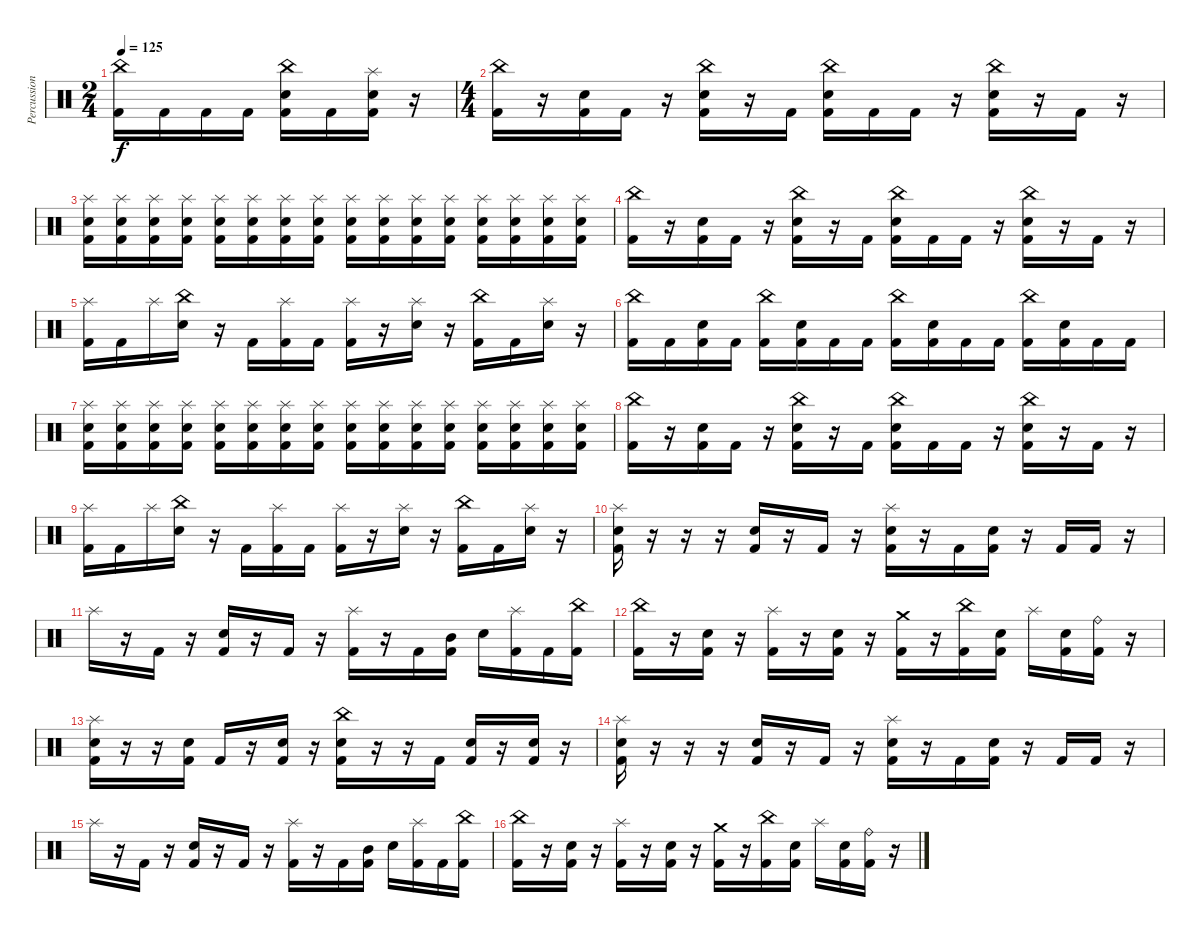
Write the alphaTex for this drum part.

\track ("Percussion" "Percussion") {instrument percussion}
\staff {score}
\articulation defaults
\ts (2 4)
\tempo 125
\clef neutral
\ks c
("China (hit)" "Kick (hit) 2").16{dy f} "Kick (hit) 2".16 "Kick (hit) 2".16 "Kick (hit) 2".16 ("China (hit)" "Electric Snare (hit)" "Kick (hit) 2").16 "Kick (hit) 2".16 ("Splash (hit)" "Electric Snare (hit)" "Kick (hit) 2").16 r.16 |
\ts (4 4)
("China (hit)" "Kick (hit) 2").16 r.16 ("Electric Snare (hit)" "Kick (hit) 2").16 "Kick (hit) 2".16 r.16 ("China (hit)" "Electric Snare (hit)" "Kick (hit) 2").16 r.16 "Kick (hit) 2".16 ("China (hit)" "Electric Snare (hit)" "Kick (hit) 2").16 "Kick (hit) 2".16 "Kick (hit) 2".16 r.16 ("China (hit)" "Electric Snare (hit)" "Kick (hit) 2").16 r.16 "Kick (hit) 2".16 r.16 |
("Splash (hit)" "Electric Snare (hit)" "Kick (hit) 2").16 ("Splash (hit)" "Electric Snare (hit)" "Kick (hit) 2").16 ("Splash (hit)" "Electric Snare (hit)" "Kick (hit) 2").16 ("Splash (hit)" "Electric Snare (hit)" "Kick (hit) 2").16 ("Splash (hit)" "Electric Snare (hit)" "Kick (hit) 2").16 ("Splash (hit)" "Electric Snare (hit)" "Kick (hit) 2").16 ("Splash (hit)" "Electric Snare (hit)" "Kick (hit) 2").16 ("Splash (hit)" "Electric Snare (hit)" "Kick (hit) 2").16 ("Splash (hit)" "Electric Snare (hit)" "Kick (hit) 2").16 ("Splash (hit)" "Electric Snare (hit)" "Kick (hit) 2").16 ("Splash (hit)" "Electric Snare (hit)" "Kick (hit) 2").16 ("Splash (hit)" "Electric Snare (hit)" "Kick (hit) 2").16 ("Splash (hit)" "Electric Snare (hit)" "Kick (hit) 2").16 ("Splash (hit)" "Electric Snare (hit)" "Kick (hit) 2").16 ("Splash (hit)" "Electric Snare (hit)" "Kick (hit) 2").16 ("Splash (hit)" "Electric Snare (hit)" "Kick (hit) 2").16 |
("China (hit)" "Kick (hit) 2").16 r.16 ("Electric Snare (hit)" "Kick (hit) 2").16 "Kick (hit) 2".16 r.16 ("China (hit)" "Electric Snare (hit)" "Kick (hit) 2").16 r.16 "Kick (hit) 2".16 ("China (hit)" "Electric Snare (hit)" "Kick (hit) 2").16 "Kick (hit) 2".16 "Kick (hit) 2".16 r.16 ("China (hit)" "Electric Snare (hit)" "Kick (hit) 2").16 r.16 "Kick (hit) 2".16 r.16 |
("Splash (hit)" "Kick (hit) 2").16 "Kick (hit) 2".16 "Splash (hit)".16 ("China (hit)" "Electric Snare (hit)").16 r.16 "Kick (hit) 2".16 ("Splash (hit)" "Kick (hit) 2").16 "Kick (hit) 2".16 ("Splash (hit)" "Kick (hit) 2").16 r.16 ("Splash (hit)" "Electric Snare (hit)").16 r.16 ("China (hit)" "Kick (hit) 2").16 "Kick (hit) 2".16 ("Splash (hit)" "Electric Snare (hit)").16 r.16 |
("China (hit)" "Kick (hit) 2").16 "Kick (hit) 2".16 ("Electric Snare (hit)" "Kick (hit) 2").16 "Kick (hit) 2".16 ("China (hit)" "Kick (hit) 2").16 ("Electric Snare (hit)" "Kick (hit) 2").16 "Kick (hit) 2".16 "Kick (hit) 2".16 ("China (hit)" "Kick (hit) 2").16 ("Electric Snare (hit)" "Kick (hit) 2").16 "Kick (hit) 2".16 "Kick (hit) 2".16 ("China (hit)" "Kick (hit) 2").16 ("Electric Snare (hit)" "Kick (hit) 2").16 "Kick (hit) 2".16 "Kick (hit) 2".16 |
("Splash (hit)" "Electric Snare (hit)" "Kick (hit) 2").16 ("Splash (hit)" "Electric Snare (hit)" "Kick (hit) 2").16 ("Splash (hit)" "Electric Snare (hit)" "Kick (hit) 2").16 ("Splash (hit)" "Electric Snare (hit)" "Kick (hit) 2").16 ("Splash (hit)" "Electric Snare (hit)" "Kick (hit) 2").16 ("Splash (hit)" "Electric Snare (hit)" "Kick (hit) 2").16 ("Splash (hit)" "Electric Snare (hit)" "Kick (hit) 2").16 ("Splash (hit)" "Electric Snare (hit)" "Kick (hit) 2").16 ("Splash (hit)" "Electric Snare (hit)" "Kick (hit) 2").16 ("Splash (hit)" "Electric Snare (hit)" "Kick (hit) 2").16 ("Splash (hit)" "Electric Snare (hit)" "Kick (hit) 2").16 ("Splash (hit)" "Electric Snare (hit)" "Kick (hit) 2").16 ("Splash (hit)" "Electric Snare (hit)" "Kick (hit) 2").16 ("Splash (hit)" "Electric Snare (hit)" "Kick (hit) 2").16 ("Splash (hit)" "Electric Snare (hit)" "Kick (hit) 2").16 ("Splash (hit)" "Electric Snare (hit)" "Kick (hit) 2").16 |
("China (hit)" "Kick (hit) 2").16 r.16 ("Electric Snare (hit)" "Kick (hit) 2").16 "Kick (hit) 2".16 r.16 ("China (hit)" "Electric Snare (hit)" "Kick (hit) 2").16 r.16 "Kick (hit) 2".16 ("China (hit)" "Electric Snare (hit)" "Kick (hit) 2").16 "Kick (hit) 2".16 "Kick (hit) 2".16 r.16 ("China (hit)" "Electric Snare (hit)" "Kick (hit) 2").16 r.16 "Kick (hit) 2".16 r.16 |
("Splash (hit)" "Kick (hit) 2").16 "Kick (hit) 2".16 "Splash (hit)".16 ("China (hit)" "Electric Snare (hit)").16 r.16 "Kick (hit) 2".16 ("Splash (hit)" "Kick (hit) 2").16 "Kick (hit) 2".16 ("Splash (hit)" "Kick (hit) 2").16 r.16 ("Splash (hit)" "Electric Snare (hit)").16 r.16 ("China (hit)" "Kick (hit) 2").16 "Kick (hit) 2".16 ("Splash (hit)" "Electric Snare (hit)").16 r.16 |
("Splash (hit)" "Electric Snare (hit)" "Kick (hit) 2").16 r.16 r.16 r.16 ("Electric Snare (hit)" "Kick (hit) 2").16 r.16 "Kick (hit) 2".16 r.16 ("Splash (hit)" "Electric Snare (hit)" "Kick (hit) 2").16 r.16 "Kick (hit) 2".16 ("Electric Snare (hit)" "Kick (hit) 2").16 r.16 "Kick (hit) 2".16 "Kick (hit) 2".16 r.16 |
"Splash (hit)".16 r.16 "Kick (hit) 2".16 r.16 ("Electric Snare (hit)" "Kick (hit) 2").16 r.16 "Kick (hit) 2".16 r.16 ("Splash (hit)" "Kick (hit) 2").16 r.16 "Kick (hit) 2".16 ("Mid Tom (hit)" "Kick (hit) 2").16 "Electric Snare (hit)".16 ("Splash (hit)" "Kick (hit) 2").16 "Kick (hit) 2".16 ("China (hit)" "Kick (hit) 2").16 |
("China (hit)" "Kick (hit) 2").16 r.16 ("Electric Snare (hit)" "Kick (hit) 2").16 r.16 ("Splash (hit)" "Kick (hit) 2").16 r.16 ("Electric Snare (hit)" "Kick (hit) 2").16 r.16 ("Crash medium (hit)" "Kick (hit) 2").16 r.16 ("China (hit)" "Kick (hit) 2").16 ("Electric Snare (hit)" "Kick (hit) 2").16 "Splash (hit)".16 ("Electric Snare (hit)" "Kick (hit) 2").16 ("Ride (bell)" "Kick (hit) 2").16 r.16 |
("Splash (hit)" "Electric Snare (hit)" "Kick (hit) 2").16 r.16 r.16 ("Electric Snare (hit)" "Kick (hit) 2").16 "Kick (hit) 2".16 r.16 ("Electric Snare (hit)" "Kick (hit) 2").16 r.16 ("China (hit)" "Electric Snare (hit)" "Kick (hit) 2").16 r.16 r.16 "Kick (hit) 2".16 ("Electric Snare (hit)" "Kick (hit) 2").16 r.16 ("Electric Snare (hit)" "Kick (hit) 2").16 r.16 |
("Splash (hit)" "Electric Snare (hit)" "Kick (hit) 2").16 r.16 r.16 r.16 ("Electric Snare (hit)" "Kick (hit) 2").16 r.16 "Kick (hit) 2".16 r.16 ("Splash (hit)" "Electric Snare (hit)" "Kick (hit) 2").16 r.16 "Kick (hit) 2".16 ("Electric Snare (hit)" "Kick (hit) 2").16 r.16 "Kick (hit) 2".16 "Kick (hit) 2".16 r.16 |
"Splash (hit)".16 r.16 "Kick (hit) 2".16 r.16 ("Electric Snare (hit)" "Kick (hit) 2").16 r.16 "Kick (hit) 2".16 r.16 ("Splash (hit)" "Kick (hit) 2").16 r.16 "Kick (hit) 2".16 ("Mid Tom (hit)" "Kick (hit) 2").16 "Electric Snare (hit)".16 ("Splash (hit)" "Kick (hit) 2").16 "Kick (hit) 2".16 ("China (hit)" "Kick (hit) 2").16 |
("China (hit)" "Kick (hit) 2").16 r.16 ("Electric Snare (hit)" "Kick (hit) 2").16 r.16 ("Splash (hit)" "Kick (hit) 2").16 r.16 ("Electric Snare (hit)" "Kick (hit) 2").16 r.16 ("Crash medium (hit)" "Kick (hit) 2").16 r.16 ("China (hit)" "Kick (hit) 2").16 ("Electric Snare (hit)" "Kick (hit) 2").16 "Splash (hit)".16 ("Electric Snare (hit)" "Kick (hit) 2").16 ("Ride (bell)" "Kick (hit) 2").16 r.16
